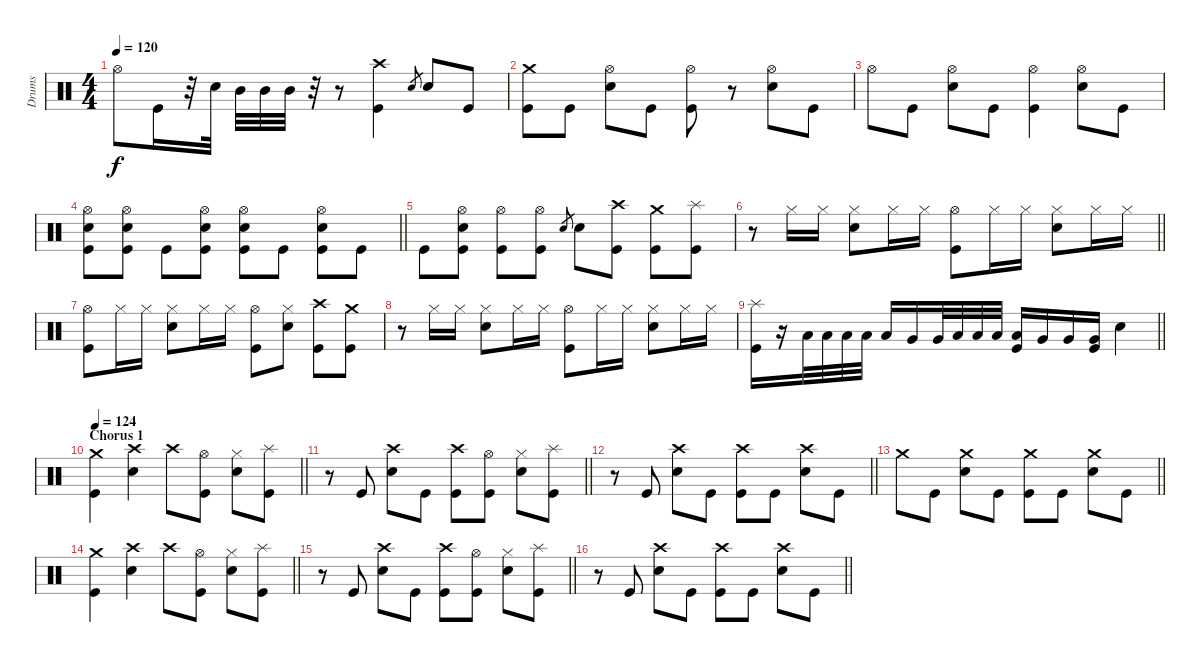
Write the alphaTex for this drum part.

\track ("Drums" "Drums") {instrument percussion}
\staff {score}
\articulation defaults
\ts (4 4)
\tempo 120
\clef neutral
\ks c "Hi-Hat (open)".8{dy f} "Kick (hit)".16
r.32 "Snare (hit) 2".32 "Mid Tom (hit)".32 "Mid Tom (hit)".32 "Mid Tom (hit)".32 r.32 r.8 ("Crash high (hit)" "Kick (hit)").4 "Snare (hit) 2".8{gr} "Snare (hit) 2".8 "Kick (hit)".8 |
("Crash medium (hit)" "Kick (hit)").8 "Kick (hit)".8 ("Hi-Hat (open)" "Snare (hit) 2").8 "Kick (hit)".8 ("Hi-Hat (open)" "Kick (hit)").8 r.8 ("Hi-Hat (open)" "Snare (hit) 2").8 "Kick (hit)".8 |
"Hi-Hat (open)".8 "Kick (hit)".8 ("Hi-Hat (open)" "Snare (hit) 2").8 "Kick (hit)".8 ("Hi-Hat (open)" "Kick (hit)").4 ("Hi-Hat (open)" "Snare (hit) 2").8 "Kick (hit)".8 |
\barLineRight lightlight
("Hi-Hat (open)" "Snare (hit) 2" "Kick (hit)").8 ("Hi-Hat (open)" "Snare (hit) 2" "Kick (hit)").8 "Kick (hit)".8 ("Hi-Hat (open)" "Snare (hit) 2" "Kick (hit)").8 ("Hi-Hat (open)" "Snare (hit) 2" "Kick (hit)").8 "Kick (hit)".8 ("Hi-Hat (open)" "Snare (hit) 2" "Kick (hit)").8 "Kick (hit)".8 |
"Kick (hit)".8 ("Hi-Hat (open)" "Snare (hit) 2" "Kick (hit)").8 ("Hi-Hat (open)" "Kick (hit)").8 ("Hi-Hat (open)" "Kick (hit)").8 "Snare (hit) 2".8{gr} "Snare (hit) 2".8 ("Crash high (hit)" "Kick (hit)").8 ("Crash medium (hit)" "Kick (hit)").8 ("Splash (hit)" "Kick (hit)").8 |
\barLineRight lightlight
r.8 "Hi-Hat (closed)".16 "Hi-Hat (closed)".16 ("Hi-Hat (closed)" "Snare (hit) 2").8 "Hi-Hat (closed)".16 "Hi-Hat (closed)".16 ("Hi-Hat (open)" "Kick (hit)").8 "Hi-Hat (closed)".16 "Hi-Hat (closed)".16 ("Hi-Hat (closed)" "Snare (hit) 2").8 "Hi-Hat (closed)".16 "Hi-Hat (closed)".16 |
("Hi-Hat (open)" "Kick (hit)").8 "Hi-Hat (closed)".16 "Hi-Hat (closed)".16 ("Hi-Hat (closed)" "Snare (hit) 2").8 "Hi-Hat (closed)".16 "Hi-Hat (closed)".16 ("Hi-Hat (open)" "Kick (hit)").8 ("Hi-Hat (closed)" "Snare (hit) 2").8 ("Crash high (hit)" "Kick (hit)").8 ("Crash medium (hit)" "Kick (hit)").8 |
r.8 "Hi-Hat (closed)".16 "Hi-Hat (closed)".16 ("Hi-Hat (closed)" "Snare (hit) 2").8 "Hi-Hat (closed)".16 "Hi-Hat (closed)".16 ("Hi-Hat (open)" "Kick (hit)").8 "Hi-Hat (closed)".16 "Hi-Hat (closed)".16 ("Hi-Hat (closed)" "Snare (hit) 2").8 "Hi-Hat (closed)".16 "Hi-Hat (closed)".16 |
\barLineRight lightlight
("Splash (hit)" "Kick (hit)").16 r.16 "Low Tom (hit)".32 "Low Tom (hit)".32 "Low Tom (hit)".32 "Low Tom (hit)".32 "Low Tom (hit)".16 "Very Low Tom (hit)".16 "Very Low Tom (hit)".32 "Low Tom (hit)".32 "Low Tom (hit)".32 "Low Tom (hit)".32 ("Low Tom (hit)" "Kick (hit)").16 "Very Low Tom (hit)".16 "Very Low Tom (hit)".16 ("Very Low Tom (hit)" "Kick (hit)").16 "Snare (hit) 2".4 |
\section ("" "Chorus 1")
\tempo 124
\barLineRight lightlight
("Crash medium (hit)" "Kick (hit)").4 ("Crash high (hit)" "Snare (hit) 2").4 "Crash high (hit)".8 ("Hi-Hat (open)" "Kick (hit)").8 ("Hi-Hat (closed)" "Snare (hit) 2").8 ("Splash (hit)" "Kick (hit)").8 |
\barLineRight lightlight
r.8 "Kick (hit)".8 ("Crash high (hit)" "Snare (hit) 2").8 "Kick (hit)".8 ("Crash high (hit)" "Kick (hit)").8 ("Hi-Hat (open)" "Kick (hit)").8 ("Hi-Hat (closed)" "Snare (hit) 2").8 ("Splash (hit)" "Kick (hit)").8 |
\barLineRight lightlight
r.8 "Kick (hit)".8 ("Crash high (hit)" "Snare (hit) 2").8 "Kick (hit)".8 ("Crash high (hit)" "Kick (hit)").8 "Kick (hit)".8 ("Crash high (hit)" "Snare (hit) 2").8 "Kick (hit)".8 |
\barLineRight lightlight "Crash medium (hit)".8 "Kick (hit)".8
("Crash medium (hit)" "Snare (hit) 2").8 "Kick (hit)".8 ("Crash medium (hit)" "Kick (hit)").8 "Kick (hit)".8 ("Crash medium (hit)" "Snare (hit) 2").8 "Kick (hit)".8 |
\barLineRight lightlight
("Crash medium (hit)" "Kick (hit)").4 ("Crash high (hit)" "Snare (hit) 2").4 "Crash high (hit)".8 ("Hi-Hat (open)" "Kick (hit)").8 ("Hi-Hat (closed)" "Snare (hit) 2").8 ("Splash (hit)" "Kick (hit)").8 |
\barLineRight lightlight
r.8 "Kick (hit)".8 ("Crash high (hit)" "Snare (hit) 2").8 "Kick (hit)".8 ("Crash high (hit)" "Kick (hit)").8 ("Hi-Hat (open)" "Kick (hit)").8 ("Hi-Hat (closed)" "Snare (hit) 2").8 ("Splash (hit)" "Kick (hit)").8 |
\barLineRight lightlight
r.8 "Kick (hit)".8 ("Crash high (hit)" "Snare (hit) 2").8 "Kick (hit)".8 ("Crash high (hit)" "Kick (hit)").8 "Kick (hit)".8 ("Crash high (hit)" "Snare (hit) 2").8 "Kick (hit)".8
